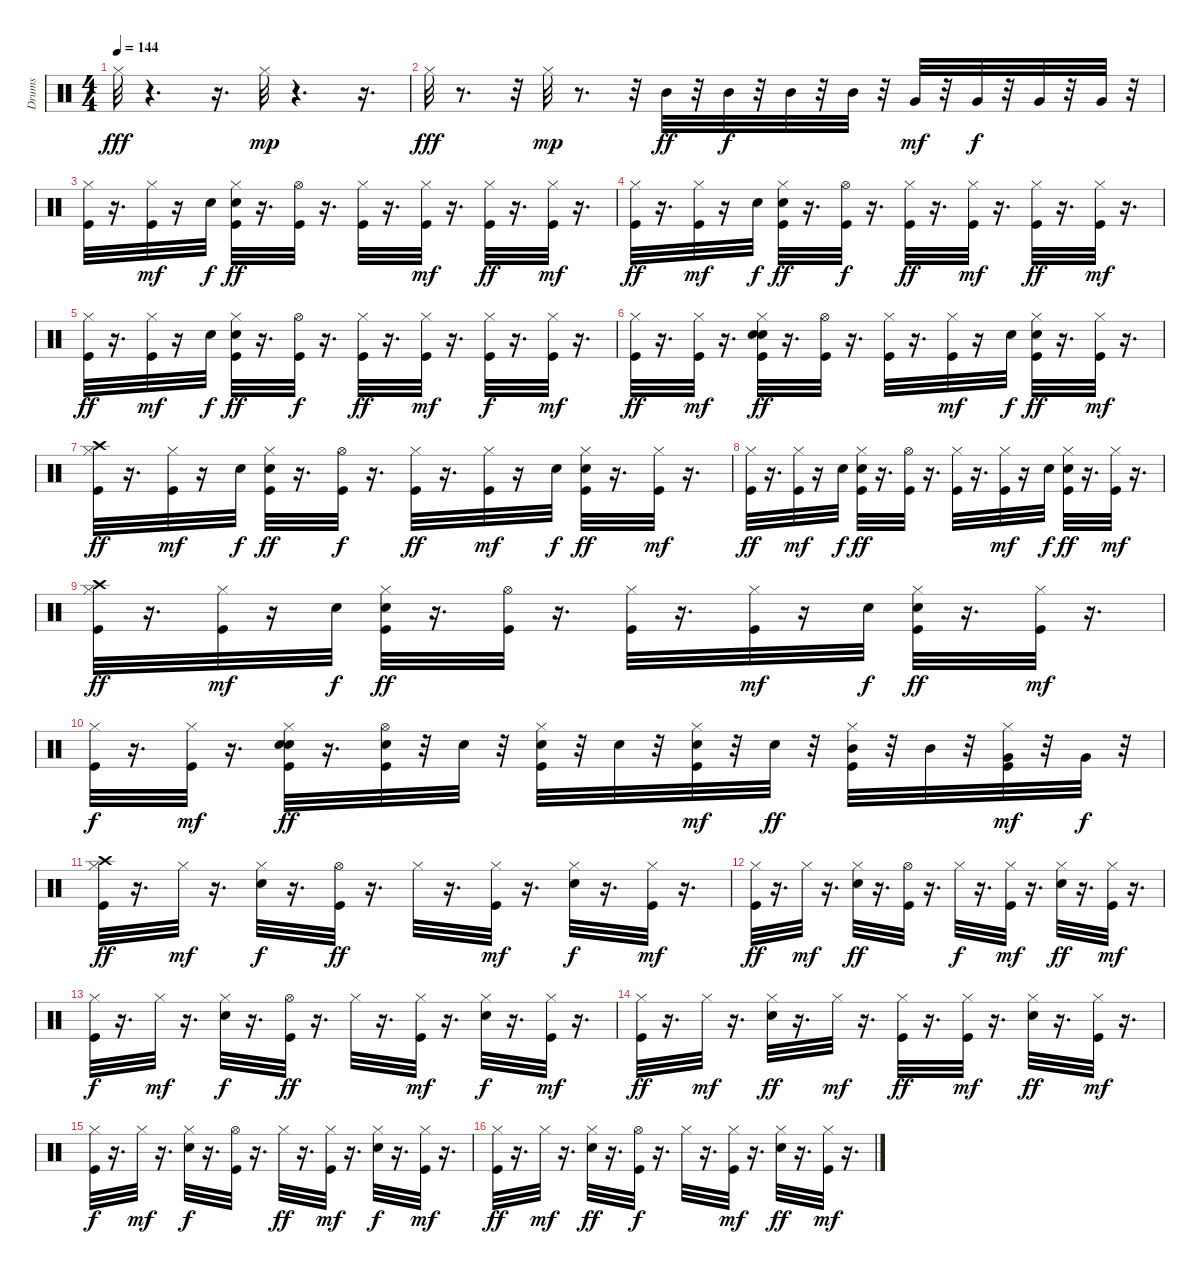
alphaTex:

\track ("Drums" "Drums") {instrument percussion}
\staff {score}
\articulation defaults
\ts (4 4)
\tempo 144
\clef neutral
\ks c "Hi-Hat (closed)".32{dy fff}
r.4{d} r.16{d} "Hi-Hat (closed)".32{dy mp} r.4{d} r.16{d} |
"Hi-Hat (closed)".32{dy fff} r.8{d} r.32 "Hi-Hat (closed)".32{dy mp} r.8{d} r.32 "Mid Tom (hit)".32{dy ff} r.32 "Mid Tom (hit)".32{dy f} r.32 "Mid Tom (hit)".32 r.32 "Mid Tom (hit)".32 r.32 "Very Low Tom (hit)".32{dy mf} r.32 "Very Low Tom (hit)".32{dy f} r.32 "Very Low Tom (hit)".32 r.32 "Very Low Tom (hit)".32 r.32 |
("Kick (hit)" "Hi-Hat (closed)").32 r.16{d} ("Kick (hit)" "Hi-Hat (closed)").32{dy mf} r.16 "Snare (hit) 2".32{dy f} ("Snare (hit) 2" "Hi-Hat (closed)" "Kick (hit)").32{dy ff} r.16{d} ("Kick (hit)" "Hi-Hat (open)").32 r.16{d} ("Hi-Hat (closed)" "Kick (hit)").32 r.16{d} ("Kick (hit)" "Hi-Hat (closed)").32{dy mf} r.16{d} ("Hi-Hat (closed)" "Kick (hit)").32{dy ff} r.16{d} ("Hi-Hat (closed)" "Kick (hit)").32{dy mf} r.16{d} |
("Hi-Hat (closed)" "Kick (hit)").32{dy ff} r.16{d} ("Hi-Hat (closed)" "Kick (hit)").32{dy mf} r.16 "Snare (hit) 2".32{dy f} ("Hi-Hat (closed)" "Snare (hit) 2" "Kick (hit)").32{dy ff} r.16{d} ("Kick (hit)" "Hi-Hat (open)").32{dy f} r.16{d} ("Kick (hit)" "Hi-Hat (closed)").32{dy ff} r.16{d} ("Kick (hit)" "Hi-Hat (closed)").32{dy mf} r.16{d} ("Hi-Hat (closed)" "Kick (hit)").32{dy ff} r.16{d} ("Kick (hit)" "Hi-Hat (closed)").32{dy mf} r.16{d} |
("Kick (hit)" "Hi-Hat (closed)").32{dy ff} r.16{d} ("Hi-Hat (closed)" "Kick (hit)").32{dy mf} r.16 "Snare (hit) 2".32{dy f} ("Kick (hit)" "Hi-Hat (closed)" "Snare (hit) 2").32{dy ff} r.16{d} ("Kick (hit)" "Hi-Hat (open)").32{dy f} r.16{d} ("Hi-Hat (closed)" "Kick (hit)").32{dy ff} r.16{d} ("Kick (hit)" "Hi-Hat (closed)").32{dy mf} r.16{d} ("Kick (hit)" "Hi-Hat (closed)").32{dy f} r.16{d} ("Kick (hit)" "Hi-Hat (closed)").32{dy mf} r.16{d} |
("Hi-Hat (closed)" "Kick (hit)").32{dy ff} r.16{d} ("Kick (hit)" "Hi-Hat (closed)").32{dy mf} r.16{d} ("Snare (hit) 2" "Kick (hit)" "Snare (hit) 2" "Hi-Hat (closed)").32{dy ff} r.16{d} ("Kick (hit)" "Hi-Hat (open)").32 r.16{d} ("Hi-Hat (closed)" "Kick (hit)").32 r.16{d} ("Kick (hit)" "Hi-Hat (closed)").32{dy mf} r.16 "Snare (hit) 2".32{dy f} ("Snare (hit) 2" "Hi-Hat (closed)" "Kick (hit)").32{dy ff} r.16{d} ("Hi-Hat (closed)" "Kick (hit)").32{dy mf} r.16{d} |
("Hi-Hat (closed)" "Crash high (hit)" "Kick (hit)").32{dy ff} r.16{d} ("Kick (hit)" "Hi-Hat (closed)").32{dy mf} r.16 "Snare (hit) 2".32{dy f} ("Kick (hit)" "Snare (hit) 2" "Hi-Hat (closed)").32{dy ff} r.16{d} ("Hi-Hat (open)" "Kick (hit)").32{dy f} r.16{d} ("Hi-Hat (closed)" "Kick (hit)").32{dy ff} r.16{d} ("Hi-Hat (closed)" "Kick (hit)").32{dy mf} r.16 "Snare (hit) 2".32{dy f} ("Hi-Hat (closed)" "Kick (hit)" "Snare (hit) 2").32{dy ff} r.16{d} ("Hi-Hat (closed)" "Kick (hit)").32{dy mf} r.16{d} |
("Kick (hit)" "Hi-Hat (closed)").32{dy ff} r.16{d} ("Kick (hit)" "Hi-Hat (closed)").32{dy mf} r.16 "Snare (hit) 2".32{dy f} ("Hi-Hat (closed)" "Kick (hit)" "Snare (hit) 2").32{dy ff} r.16{d} ("Kick (hit)" "Hi-Hat (open)").32 r.16{d} ("Kick (hit)" "Hi-Hat (closed)").32 r.16{d} ("Kick (hit)" "Hi-Hat (closed)").32{dy mf} r.16 "Snare (hit) 2".32{dy f} ("Snare (hit) 2" "Hi-Hat (closed)" "Kick (hit)").32{dy ff} r.16{d} ("Kick (hit)" "Hi-Hat (closed)").32{dy mf} r.16{d} |
("Kick (hit)" "Crash high (hit)" "Hi-Hat (closed)").32{dy ff} r.16{d} ("Kick (hit)" "Hi-Hat (closed)").32{dy mf} r.16 "Snare (hit) 2".32{dy f} ("Snare (hit) 2" "Kick (hit)" "Hi-Hat (closed)").32{dy ff} r.16{d} ("Hi-Hat (open)" "Kick (hit)").32 r.16{d} ("Kick (hit)" "Hi-Hat (closed)").32 r.16{d} ("Hi-Hat (closed)" "Kick (hit)").32{dy mf} r.16 "Snare (hit) 2".32{dy f} ("Kick (hit)" "Hi-Hat (closed)" "Snare (hit) 2").32{dy ff} r.16{d} ("Hi-Hat (closed)" "Kick (hit)").32{dy mf} r.16{d} |
("Kick (hit)" "Hi-Hat (closed)").32{dy f} r.16{d} ("Hi-Hat (closed)" "Kick (hit)").32{dy mf} r.16{d} ("Snare (hit) 2" "Hi-Hat (closed)" "Kick (hit)" "Snare (hit) 2").32{dy ff} r.16{d} ("Hi-Hat (open)" "Snare (hit) 2" "Kick (hit)").32 r.32 "Snare (hit) 2".32 r.32 ("Kick (hit)" "Snare (hit) 2" "Hi-Hat (closed)").32 r.32 "Snare (hit) 2".32 r.32 ("Kick (hit)" "Snare (hit) 2" "Hi-Hat (closed)").32{dy mf} r.32 "Snare (hit) 2".32{dy ff} r.32 ("Hi-Hat (closed)" "Kick (hit)" "Mid Tom (hit)").32 r.32 "Mid Tom (hit)".32 r.32 ("Hi-Hat (closed)" "Very Low Tom (hit)" "Kick (hit)").32{dy mf} r.32 "Very Low Tom (hit)".32{dy f} r.32 |
("Kick (hit)" "Crash high (hit)" "Hi-Hat (closed)").32{dy ff} r.16{d} "Hi-Hat (closed)".32{dy mf} r.16{d} ("Hi-Hat (closed)" "Snare (hit) 2").32{dy f} r.16{d} ("Kick (hit)" "Hi-Hat (open)").32{dy ff} r.16{d} "Hi-Hat (closed)".32 r.16{d} ("Hi-Hat (closed)" "Kick (hit)").32{dy mf} r.16{d} ("Snare (hit) 2" "Hi-Hat (closed)").32{dy f} r.16{d} ("Kick (hit)" "Hi-Hat (closed)").32{dy mf} r.16{d} |
("Kick (hit)" "Hi-Hat (closed)").32{dy ff} r.16{d} "Hi-Hat (closed)".32{dy mf} r.16{d} ("Snare (hit) 2" "Hi-Hat (closed)").32{dy ff} r.16{d} ("Hi-Hat (open)" "Kick (hit)").32 r.16{d} "Hi-Hat (closed)".32{dy f} r.16{d} ("Kick (hit)" "Hi-Hat (closed)").32{dy mf} r.16{d} ("Snare (hit) 2" "Hi-Hat (closed)").32{dy ff} r.16{d} ("Hi-Hat (closed)" "Kick (hit)").32{dy mf} r.16{d} |
("Kick (hit)" "Hi-Hat (closed)").32{dy f} r.16{d} "Hi-Hat (closed)".32{dy mf} r.16{d} ("Snare (hit) 2" "Hi-Hat (closed)").32{dy f} r.16{d} ("Hi-Hat (open)" "Kick (hit)").32{dy ff} r.16{d} "Hi-Hat (closed)".32 r.16{d} ("Hi-Hat (closed)" "Kick (hit)").32{dy mf} r.16{d} ("Snare (hit) 2" "Hi-Hat (closed)").32{dy f} r.16{d} ("Kick (hit)" "Hi-Hat (closed)").32{dy mf} r.16{d} |
("Kick (hit)" "Hi-Hat (closed)").32{dy ff} r.16{d} "Hi-Hat (closed)".32{dy mf} r.16{d} ("Hi-Hat (closed)" "Snare (hit) 2").32{dy ff} r.16{d} "Hi-Hat (closed)".32{dy mf} r.16{d} ("Kick (hit)" "Hi-Hat (closed)").32{dy ff} r.16{d} ("Kick (hit)" "Hi-Hat (closed)").32{dy mf} r.16{d} ("Snare (hit) 2" "Hi-Hat (closed)").32{dy ff} r.16{d} ("Kick (hit)" "Hi-Hat (closed)").32{dy mf} r.16{d} |
("Kick (hit)" "Hi-Hat (closed)").32{dy f} r.16{d} "Hi-Hat (closed)".32{dy mf} r.16{d} ("Hi-Hat (closed)" "Snare (hit) 2").32{dy f} r.16{d} ("Hi-Hat (open)" "Kick (hit)").32 r.16{d} "Hi-Hat (closed)".32{dy ff} r.16{d} ("Kick (hit)" "Hi-Hat (closed)").32{dy mf} r.16{d} ("Hi-Hat (closed)" "Snare (hit) 2").32{dy f} r.16{d} ("Hi-Hat (closed)" "Kick (hit)").32{dy mf} r.16{d} |
("Kick (hit)" "Hi-Hat (closed)").32{dy ff} r.16{d} "Hi-Hat (closed)".32{dy mf} r.16{d} ("Snare (hit) 2" "Hi-Hat (closed)").32{dy ff} r.16{d} ("Hi-Hat (open)" "Kick (hit)").32{dy f} r.16{d} "Hi-Hat (closed)".32 r.16{d} ("Kick (hit)" "Hi-Hat (closed)").32{dy mf} r.16{d} ("Hi-Hat (closed)" "Snare (hit) 2").32{dy ff} r.16{d} ("Hi-Hat (closed)" "Kick (hit)").32{dy mf} r.16{d}
